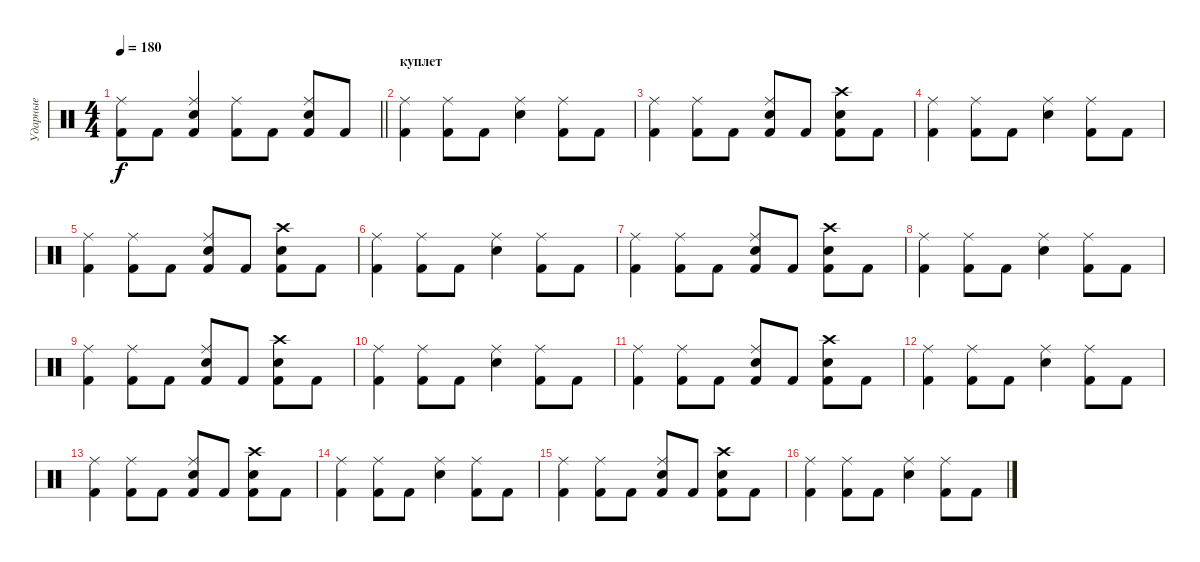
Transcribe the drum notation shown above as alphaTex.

\track ("Ударные" "Ударные") {instrument percussion}
\staff {score}
\articulation defaults
\ts (4 4)
\tempo 180
\clef neutral
\barLineRight lightlight
\ks c
("Kick (hit) 2" "Ride (middle)").8{dy f} "Kick (hit) 2".8 ("Kick (hit) 2" "Snare (hit) 2" "Ride (middle)").4 ("Kick (hit) 2" "Ride (middle)").8 "Kick (hit) 2".8 ("Kick (hit) 2" "Snare (hit) 2" "Ride (middle)").8 "Kick (hit) 2".8 |
\section ("" "куплет")
("Kick (hit) 2" "Ride (middle)").4 ("Kick (hit) 2" "Ride (middle)").8 "Kick (hit) 2".8 ("Snare (hit) 2" "Ride (middle)").4 ("Kick (hit) 2" "Ride (middle)").8 "Kick (hit) 2".8 |
("Kick (hit) 2" "Ride (middle)").4 ("Kick (hit) 2" "Ride (middle)").8 "Kick (hit) 2".8 ("Kick (hit) 2" "Snare (hit) 2" "Ride (middle)").8 "Kick (hit) 2".8 ("Kick (hit) 2" "Snare (hit) 2" "Crash high (hit)").8 "Kick (hit) 2".8 |
("Kick (hit) 2" "Ride (middle)").4 ("Kick (hit) 2" "Ride (middle)").8 "Kick (hit) 2".8 ("Snare (hit) 2" "Ride (middle)").4 ("Kick (hit) 2" "Ride (middle)").8 "Kick (hit) 2".8 |
("Kick (hit) 2" "Ride (middle)").4 ("Kick (hit) 2" "Ride (middle)").8 "Kick (hit) 2".8 ("Kick (hit) 2" "Snare (hit) 2" "Ride (middle)").8 "Kick (hit) 2".8 ("Kick (hit) 2" "Snare (hit) 2" "Crash high (hit)").8 "Kick (hit) 2".8 |
("Kick (hit) 2" "Ride (middle)").4 ("Kick (hit) 2" "Ride (middle)").8 "Kick (hit) 2".8 ("Snare (hit) 2" "Ride (middle)").4 ("Kick (hit) 2" "Ride (middle)").8 "Kick (hit) 2".8 |
("Kick (hit) 2" "Ride (middle)").4 ("Kick (hit) 2" "Ride (middle)").8 "Kick (hit) 2".8 ("Kick (hit) 2" "Snare (hit) 2" "Ride (middle)").8 "Kick (hit) 2".8 ("Kick (hit) 2" "Snare (hit) 2" "Crash high (hit)").8 "Kick (hit) 2".8 |
("Kick (hit) 2" "Ride (middle)").4 ("Kick (hit) 2" "Ride (middle)").8 "Kick (hit) 2".8 ("Snare (hit) 2" "Ride (middle)").4 ("Kick (hit) 2" "Ride (middle)").8 "Kick (hit) 2".8 |
("Kick (hit) 2" "Ride (middle)").4 ("Kick (hit) 2" "Ride (middle)").8 "Kick (hit) 2".8 ("Kick (hit) 2" "Snare (hit) 2" "Ride (middle)").8 "Kick (hit) 2".8 ("Kick (hit) 2" "Snare (hit) 2" "Crash high (hit)").8 "Kick (hit) 2".8 |
("Kick (hit) 2" "Ride (middle)").4 ("Kick (hit) 2" "Ride (middle)").8 "Kick (hit) 2".8 ("Snare (hit) 2" "Ride (middle)").4 ("Kick (hit) 2" "Ride (middle)").8 "Kick (hit) 2".8 |
("Kick (hit) 2" "Ride (middle)").4 ("Kick (hit) 2" "Ride (middle)").8 "Kick (hit) 2".8 ("Kick (hit) 2" "Snare (hit) 2" "Ride (middle)").8 "Kick (hit) 2".8 ("Kick (hit) 2" "Snare (hit) 2" "Crash high (hit)").8 "Kick (hit) 2".8 |
("Kick (hit) 2" "Ride (middle)").4 ("Kick (hit) 2" "Ride (middle)").8 "Kick (hit) 2".8 ("Snare (hit) 2" "Ride (middle)").4 ("Kick (hit) 2" "Ride (middle)").8 "Kick (hit) 2".8 |
("Kick (hit) 2" "Ride (middle)").4 ("Kick (hit) 2" "Ride (middle)").8 "Kick (hit) 2".8 ("Kick (hit) 2" "Snare (hit) 2" "Ride (middle)").8 "Kick (hit) 2".8 ("Kick (hit) 2" "Snare (hit) 2" "Crash high (hit)").8 "Kick (hit) 2".8 |
("Kick (hit) 2" "Ride (middle)").4 ("Kick (hit) 2" "Ride (middle)").8 "Kick (hit) 2".8 ("Snare (hit) 2" "Ride (middle)").4 ("Kick (hit) 2" "Ride (middle)").8 "Kick (hit) 2".8 |
("Kick (hit) 2" "Ride (middle)").4 ("Kick (hit) 2" "Ride (middle)").8 "Kick (hit) 2".8 ("Kick (hit) 2" "Snare (hit) 2" "Ride (middle)").8 "Kick (hit) 2".8 ("Kick (hit) 2" "Snare (hit) 2" "Crash high (hit)").8 "Kick (hit) 2".8 |
("Kick (hit) 2" "Ride (middle)").4 ("Kick (hit) 2" "Ride (middle)").8 "Kick (hit) 2".8 ("Snare (hit) 2" "Ride (middle)").4 ("Kick (hit) 2" "Ride (middle)").8 "Kick (hit) 2".8
